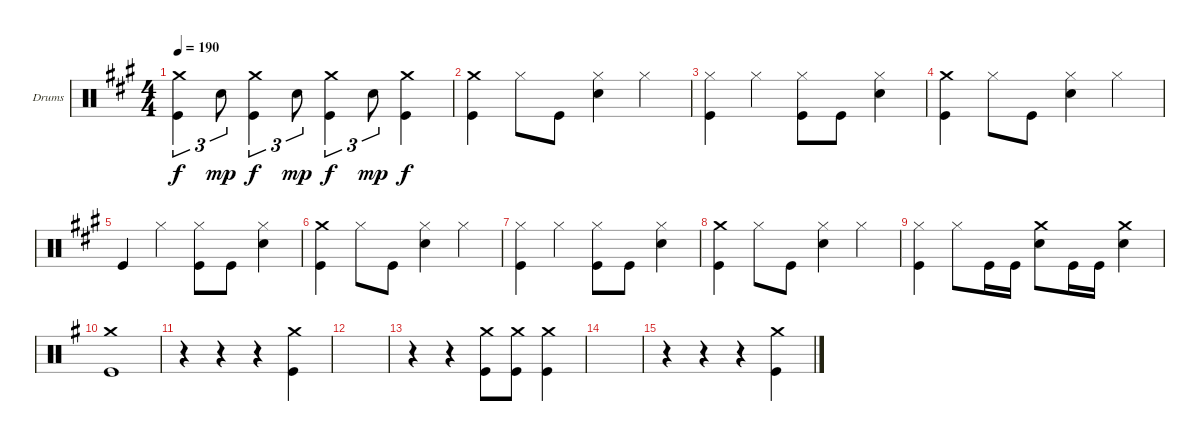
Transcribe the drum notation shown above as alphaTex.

\bracketExtendMode groupsimilarinstruments
\firstSystemTrackNameOrientation horizontal
\otherSystemsTrackNameOrientation horizontal
\track ("Drums" "Drums") {instrument percussion}
\staff {score}
\articulation defaults
\ts (4 4)
\tempo 190
\clef neutral
\ks a
("Kick (hit)" "Crash medium (hit)").4{tu (3 2) dy f} "Snare (hit) 2".8{tu (3 2) dy mp} ("Kick (hit)" "Crash medium (hit)").4{tu (3 2) dy f} "Snare (hit) 2".8{tu (3 2) dy mp} ("Kick (hit)" "Crash medium (hit)").4{tu (3 2) dy f} "Snare (hit) 2".8{tu (3 2) dy mp} ("Kick (hit)" "Crash medium (hit)").4{dy f} |
("Crash medium (hit)" "Kick (hit)").4 "Hi-Hat (closed)".8 "Kick (hit)".8 ("Snare (hit) 2" "Hi-Hat (closed)").4 "Hi-Hat (closed)".4 |
("Kick (hit)" "Hi-Hat (closed)").4 "Hi-Hat (closed)".4 ("Kick (hit)" "Hi-Hat (closed)").8 "Kick (hit)".8 ("Snare (hit) 2" "Hi-Hat (closed)").4 |
("Crash medium (hit)" "Kick (hit)").4 "Hi-Hat (closed)".8 "Kick (hit)".8 ("Snare (hit) 2" "Hi-Hat (closed)").4 "Hi-Hat (closed)".4 |
"Kick (hit)".4 "Hi-Hat (closed)".4 ("Kick (hit)" "Hi-Hat (closed)").8 "Kick (hit)".8 ("Snare (hit) 2" "Hi-Hat (closed)").4 |
("Crash medium (hit)" "Kick (hit)").4 "Hi-Hat (closed)".8 "Kick (hit)".8 ("Snare (hit) 2" "Hi-Hat (closed)").4 "Hi-Hat (closed)".4 |
("Kick (hit)" "Hi-Hat (closed)").4 "Hi-Hat (closed)".4 ("Kick (hit)" "Hi-Hat (closed)").8 "Kick (hit)".8 ("Snare (hit) 2" "Hi-Hat (closed)").4 |
("Crash medium (hit)" "Kick (hit)").4 "Hi-Hat (closed)".8 "Kick (hit)".8 ("Snare (hit) 2" "Hi-Hat (closed)").4 "Hi-Hat (closed)".4 |
("Kick (hit)" "Hi-Hat (closed)").4 "Hi-Hat (closed)".8 "Kick (hit)".16 "Kick (hit)".16 ("Crash medium (hit)" "Snare (hit) 2").8 "Kick (hit)".16 "Kick (hit)".16 ("Crash medium (hit)" "Snare (hit) 2").4 |
\ks g
("Crash medium (hit)" "Kick (hit)").1 |
r.4 r.4 r.4 ("Crash medium (hit)" "Kick (hit)").4 |
|
r.4 r.4 ("Crash medium (hit)" "Kick (hit)").8 ("Crash medium (hit)" "Kick (hit)").8 ("Crash medium (hit)" "Kick (hit)").4 |
|
r.4 r.4 r.4 ("Crash medium (hit)" "Kick (hit)").4
